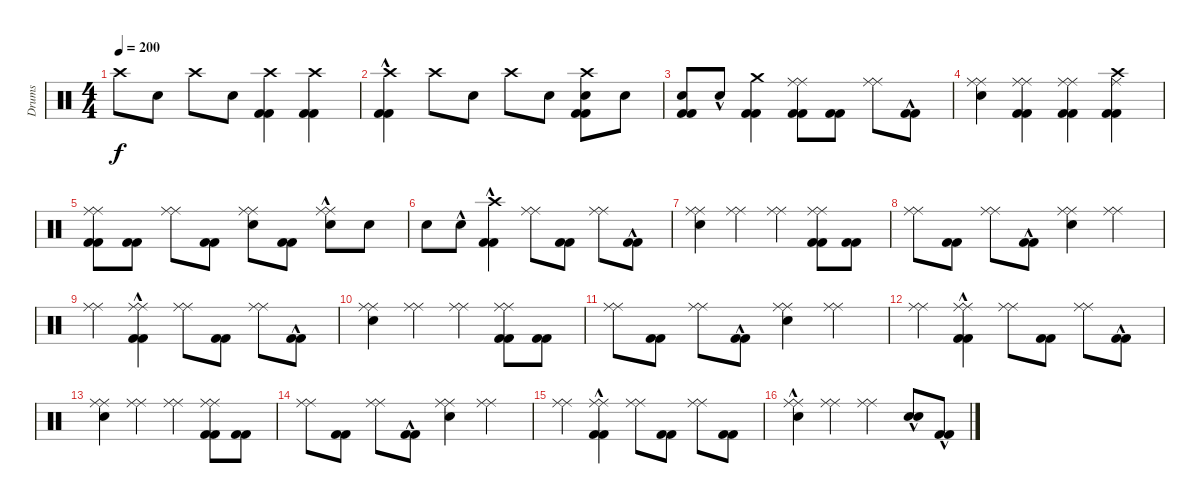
\track ("Drums" "Drums") {instrument percussion}
\staff {score}
\articulation defaults
\ts (4 4)
\tempo 200
\clef neutral
\ks c "Crash high (hit)".8{dy f} "Electric Snare (hit)".8 "Crash high (hit)".8 "Electric Snare (hit)".8
("Kick (hit) 2" "Kick (hit) 2" "Crash high (hit)").4 ("Kick (hit) 2" "Kick (hit) 2" "Crash high (hit)").4 |
("Kick (hit) 2"{hac} "Kick (hit) 2"{hac} "Crash high (hit)").4 "Crash high (hit)".8 "Electric Snare (hit)".8 "Crash high (hit)".8 "Electric Snare (hit)".8 ("Kick (hit) 2" "Kick (hit) 2" "Electric Snare (hit)" "Crash high (hit)").8 "Electric Snare (hit)".8 |
("Kick (hit) 2" "Kick (hit) 2" "Electric Snare (hit)").8 "Electric Snare (hit)"{hac}.8 ("Kick (hit) 2" "Kick (hit) 2" "Crash medium (hit)").4 ("Kick (hit) 2" "Kick (hit) 2" "Ride (middle)" "Ride (middle)").8 ("Kick (hit) 2" "Kick (hit) 2").8 ("Ride (middle)" "Ride (middle)").8 ("Kick (hit) 2"{hac} "Kick (hit) 2"{hac}).8 |
("Electric Snare (hit)" "Ride (middle)" "Ride (middle)").4 ("Kick (hit) 2" "Kick (hit) 2" "Ride (middle)" "Ride (middle)").4 ("Kick (hit) 2" "Kick (hit) 2" "Ride (middle)" "Ride (middle)").4 ("Kick (hit) 2" "Kick (hit) 2" "Ride (middle)" "Crash high (hit)").4 |
("Kick (hit) 2" "Kick (hit) 2" "Ride (middle)" "Ride (middle)").8 ("Kick (hit) 2" "Kick (hit) 2").8 ("Ride (middle)" "Ride (middle)").8 ("Kick (hit) 2" "Kick (hit) 2").8 ("Electric Snare (hit)" "Ride (middle)" "Ride (middle)").8 ("Kick (hit) 2" "Kick (hit) 2").8 ("Electric Snare (hit)" "Ride (middle)"{hac} "Ride (middle)"{hac}).8 "Electric Snare (hit)".8 |
"Electric Snare (hit)".8 "Electric Snare (hit)"{hac}.8 ("Kick (hit) 2"{hac} "Kick (hit) 2"{hac} "Crash high (hit)").4 ("Ride (middle)" "Ride (middle)").8 ("Kick (hit) 2" "Kick (hit) 2").8 ("Ride (middle)" "Ride (middle)").8 ("Kick (hit) 2"{hac} "Kick (hit) 2"{hac}).8 |
("Electric Snare (hit)" "Ride (middle)" "Ride (middle)").4 ("Ride (middle)" "Ride (middle)").4 ("Ride (middle)" "Ride (middle)").4 ("Kick (hit) 2" "Kick (hit) 2" "Ride (middle)" "Ride (middle)").8 ("Kick (hit) 2" "Kick (hit) 2").8 |
("Ride (middle)" "Ride (middle)").8 ("Kick (hit) 2" "Kick (hit) 2").8 ("Ride (middle)" "Ride (middle)").8 ("Kick (hit) 2"{hac} "Kick (hit) 2"{hac}).8 ("Electric Snare (hit)" "Ride (middle)" "Ride (middle)").4 ("Ride (middle)" "Ride (middle)").4 |
("Ride (middle)" "Ride (middle)").4 ("Kick (hit) 2"{hac} "Kick (hit) 2"{hac} "Ride (middle)" "Ride (middle)").4 ("Ride (middle)" "Ride (middle)").8 ("Kick (hit) 2" "Kick (hit) 2").8 ("Ride (middle)" "Ride (middle)").8 ("Kick (hit) 2"{hac} "Kick (hit) 2"{hac}).8 |
("Electric Snare (hit)" "Ride (middle)" "Ride (middle)").4 ("Ride (middle)" "Ride (middle)").4 ("Ride (middle)" "Ride (middle)").4 ("Kick (hit) 2" "Kick (hit) 2" "Ride (middle)" "Ride (middle)").8 ("Kick (hit) 2" "Kick (hit) 2").8 |
("Ride (middle)" "Ride (middle)").8 ("Kick (hit) 2" "Kick (hit) 2").8 ("Ride (middle)" "Ride (middle)").8 ("Kick (hit) 2"{hac} "Kick (hit) 2"{hac}).8 ("Electric Snare (hit)" "Ride (middle)" "Ride (middle)").4 ("Ride (middle)" "Ride (middle)").4 |
("Ride (middle)" "Ride (middle)").4 ("Kick (hit) 2"{hac} "Kick (hit) 2"{hac} "Ride (middle)" "Ride (middle)").4 ("Ride (middle)" "Ride (middle)").8 ("Kick (hit) 2" "Kick (hit) 2").8 ("Ride (middle)" "Ride (middle)").8 ("Kick (hit) 2"{hac} "Kick (hit) 2"{hac}).8 |
("Electric Snare (hit)" "Ride (middle)" "Ride (middle)").4 ("Ride (middle)" "Ride (middle)").4 ("Ride (middle)" "Ride (middle)").4 ("Kick (hit) 2" "Kick (hit) 2" "Ride (middle)" "Ride (middle)").8 ("Kick (hit) 2" "Kick (hit) 2").8 |
("Ride (middle)" "Ride (middle)").8 ("Kick (hit) 2" "Kick (hit) 2").8 ("Ride (middle)" "Ride (middle)").8 ("Kick (hit) 2"{hac} "Kick (hit) 2"{hac}).8 ("Electric Snare (hit)" "Ride (middle)" "Ride (middle)").4 ("Ride (middle)" "Ride (middle)").4 |
("Ride (middle)" "Ride (middle)").4 ("Kick (hit) 2"{hac} "Kick (hit) 2"{hac} "Ride (middle)" "Ride (middle)").4 ("Ride (middle)" "Ride (middle)").8 ("Kick (hit) 2" "Kick (hit) 2").8 ("Ride (middle)" "Ride (middle)").8 ("Kick (hit) 2" "Kick (hit) 2").8 |
("Electric Snare (hit)"{hac} "Ride (middle)" "Ride (middle)").4 ("Ride (middle)" "Ride (middle)").4 ("Ride (middle)" "Ride (middle)").4 ("Electric Snare (hit)"{hac} "Electric Snare (hit)"{hac}).8 ("Kick (hit) 2"{hac} "Kick (hit) 2"{hac}).8
